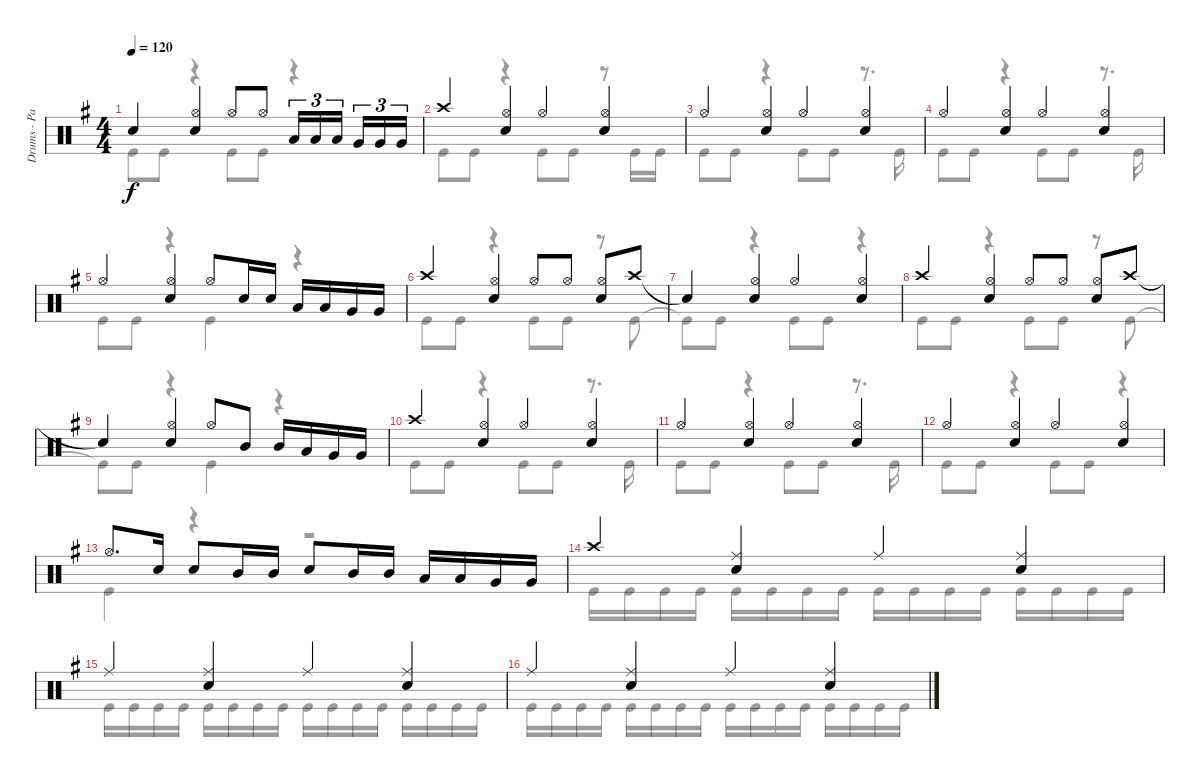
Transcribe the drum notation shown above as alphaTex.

\track ("Drums - Patrick Johansson" "Drums - Pa") {instrument percussion}
\staff {score}
\articulation defaults
\voice
\ts (4 4)
\tempo 120
\clef neutral
\ks eminor "Snare (hit)"{t}.4{dy f}
("Hi-Hat (open)" "Snare (hit) 2").4 "Hi-Hat (open)".8 "Hi-Hat (open)".8 "Low Tom (hit)".16{tu (3 2)} "Low Tom (hit)".16{tu (3 2)} "Low Tom (hit)".16{tu (3 2) beam splitsecondary} "Very Low Tom (hit)".16{tu (3 2)} "Very Low Tom (hit)".16{tu (3 2)} "Very Low Tom (hit)".16{tu (3 2)} |
"Crash high (hit)".4 ("Hi-Hat (open)" "Snare (hit) 2").4 "Hi-Hat (open)".4 ("Hi-Hat (open)" "Snare (hit) 2").4 |
"Hi-Hat (open)".4 ("Hi-Hat (open)" "Snare (hit) 2").4 "Hi-Hat (open)".4 ("Hi-Hat (open)" "Snare (hit) 2").4 |
"Hi-Hat (open)".4 ("Hi-Hat (open)" "Snare (hit) 2").4 "Hi-Hat (open)".4 ("Hi-Hat (open)" "Snare (hit) 2").4 |
"Hi-Hat (open)".4 ("Hi-Hat (open)" "Snare (hit) 2").4 "Hi-Hat (open)".8 "Snare (hit) 2".16 "Snare (hit) 2".16 "Low Tom (hit)".16 "Low Tom (hit)".16 "Very Low Tom (hit)".16 "Very Low Tom (hit)".16 |
"Crash high (hit)".4 ("Hi-Hat (open)" "Snare (hit) 2").4 "Hi-Hat (open)".8 "Hi-Hat (open)".8 ("Hi-Hat (open)" "Snare (hit) 2").8 "Crash high (hit)".8 |
"Snare (hit)"{t}.4 ("Hi-Hat (open)" "Snare (hit) 2").4 "Hi-Hat (open)".4 ("Hi-Hat (open)" "Snare (hit) 2").4 |
"Crash high (hit)".4 ("Hi-Hat (open)" "Snare (hit) 2").4 "Hi-Hat (open)".8 "Hi-Hat (open)".8 ("Hi-Hat (open)" "Snare (hit) 2").8 "Crash high (hit)".8 |
"Snare (hit)"{t}.4 ("Hi-Hat (open)" "Snare (hit) 2").4 "Hi-Hat (open)".8 "Mid Tom (hit)".8 "Mid Tom (hit)".16 "Low Tom (hit)".16 "Very Low Tom (hit)".16 "Very Low Tom (hit)".16 |
"Crash high (hit)".4 ("Hi-Hat (open)" "Snare (hit) 2").4 "Hi-Hat (open)".4 ("Hi-Hat (open)" "Snare (hit) 2").4 |
"Hi-Hat (open)".4 ("Hi-Hat (open)" "Snare (hit) 2").4 "Hi-Hat (open)".4 ("Hi-Hat (open)" "Snare (hit) 2").4 |
"Hi-Hat (open)".4 ("Hi-Hat (open)" "Snare (hit) 2").4 "Hi-Hat (open)".4 ("Hi-Hat (open)" "Snare (hit) 2").4 |
"Hi-Hat (open)".8{d} "Snare (hit) 2".16 "Snare (hit) 2".8 "Mid Tom (hit)".16 "Mid Tom (hit)".16 "Snare (hit) 2".8 "Mid Tom (hit)".16 "Mid Tom (hit)".16 "Low Tom (hit)".16 "Low Tom (hit)".16 "Very Low Tom (hit)".16 "Very Low Tom (hit)".16 |
"Crash high (hit)".4 ("Ride (middle)" "Snare (hit) 2").4 "Ride (middle)".4 ("Ride (middle)" "Snare (hit) 2").4 |
"Ride (middle)".4 ("Ride (middle)" "Snare (hit) 2").4 "Ride (middle)".4 ("Ride (middle)" "Snare (hit) 2").4 |
"Ride (middle)".4 ("Ride (middle)" "Snare (hit) 2").4 "Ride (middle)".4 ("Ride (middle)" "Snare (hit) 2").4
\voice
\clef neutral
\ottava regular
\simile none
\ks eminor "Kick (hit)"{t}.8{dy f} "Kick (hit)".8
r.4 "Kick (hit)".8 "Kick (hit)".8 r.4 |
"Kick (hit)".8 "Kick (hit)".8 r.4 "Kick (hit)".8 "Kick (hit)".8 r.8 "Kick (hit)".16 "Kick (hit)".16 |
"Kick (hit)".8 "Kick (hit)".8 r.4 "Kick (hit)".8 "Kick (hit)".8 r.8{d} "Kick (hit)".16 |
"Kick (hit)".8 "Kick (hit)".8 r.4 "Kick (hit)".8 "Kick (hit)".8 r.8{d} "Kick (hit)".16 |
"Kick (hit)".8 "Kick (hit)".8 r.4 "Kick (hit)".4 r.4 |
"Kick (hit)".8 "Kick (hit)".8 r.4 "Kick (hit)".8 "Kick (hit)".8 r.8 "Kick (hit)".8 |
"Kick (hit)"{t}.8 "Kick (hit)".8 r.4 "Kick (hit)".8 "Kick (hit)".8 r.4 |
"Kick (hit)".8 "Kick (hit)".8 r.4 "Kick (hit)".8 "Kick (hit)".8 r.8 "Kick (hit)".8 |
"Kick (hit)"{t}.8 "Kick (hit)".8 r.4 "Kick (hit)".4 r.4 |
"Kick (hit)".8 "Kick (hit)".8 r.4 "Kick (hit)".8 "Kick (hit)".8 r.8{d} "Kick (hit)".16 |
"Kick (hit)".8 "Kick (hit)".8 r.4 "Kick (hit)".8 "Kick (hit)".8 r.8{d} "Kick (hit)".16 |
"Kick (hit)".8 "Kick (hit)".8 r.4 "Kick (hit)".8 "Kick (hit)".8 r.4 |
"Kick (hit)".4 r.4 r.2 |
"Kick (hit)".16 "Kick (hit)".16 "Kick (hit)".16 "Kick (hit)".16 "Kick (hit)".16 "Kick (hit)".16 "Kick (hit)".16 "Kick (hit)".16 "Kick (hit)".16 "Kick (hit)".16 "Kick (hit)".16 "Kick (hit)".16 "Kick (hit)".16 "Kick (hit)".16 "Kick (hit)".16 "Kick (hit)".16 |
"Kick (hit)".16 "Kick (hit)".16 "Kick (hit)".16 "Kick (hit)".16 "Kick (hit)".16 "Kick (hit)".16 "Kick (hit)".16 "Kick (hit)".16 "Kick (hit)".16 "Kick (hit)".16 "Kick (hit)".16 "Kick (hit)".16 "Kick (hit)".16 "Kick (hit)".16 "Kick (hit)".16 "Kick (hit)".16 |
"Kick (hit)".16 "Kick (hit)".16 "Kick (hit)".16 "Kick (hit)".16 "Kick (hit)".16 "Kick (hit)".16 "Kick (hit)".16 "Kick (hit)".16 "Kick (hit)".16 "Kick (hit)".16 "Kick (hit)".16 "Kick (hit)".16 "Kick (hit)".16 "Kick (hit)".16 "Kick (hit)".16 "Kick (hit)".16
